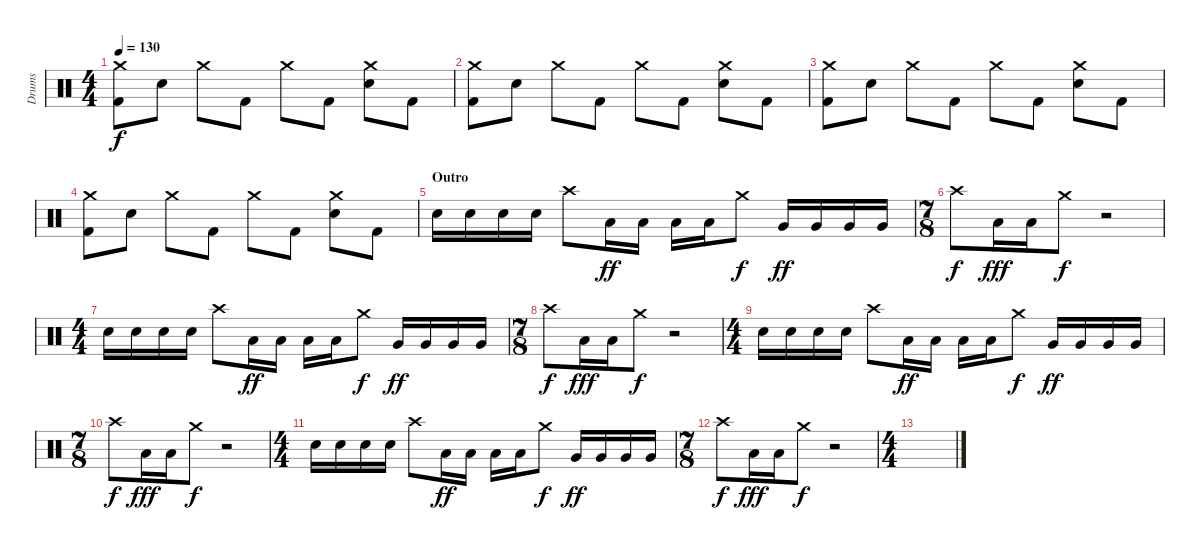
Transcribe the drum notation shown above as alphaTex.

\track ("Drums" "Drums") {instrument percussion}
\staff {score}
\articulation defaults
\ts (4 4)
\tempo 130
\clef neutral
\ks c
("Crash medium (hit)" "Kick (hit) 2").8{dy f} "Electric Snare (hit)".8 "Crash medium (hit)".8 "Kick (hit) 2".8 "Crash medium (hit)".8 "Kick (hit) 2".8 ("Crash medium (hit)" "Electric Snare (hit)").8 "Kick (hit) 2".8 |
("Crash medium (hit)" "Kick (hit) 2").8 "Electric Snare (hit)".8 "Crash medium (hit)".8 "Kick (hit) 2".8 "Crash medium (hit)".8 "Kick (hit) 2".8 ("Crash medium (hit)" "Electric Snare (hit)").8 "Kick (hit) 2".8 |
("Crash medium (hit)" "Kick (hit) 2").8 "Electric Snare (hit)".8 "Crash medium (hit)".8 "Kick (hit) 2".8 "Crash medium (hit)".8 "Kick (hit) 2".8 ("Crash medium (hit)" "Electric Snare (hit)").8 "Kick (hit) 2".8 |
("Crash medium (hit)" "Kick (hit) 2").8 "Electric Snare (hit)".8 "Crash medium (hit)".8 "Kick (hit) 2".8 "Crash medium (hit)".8 "Kick (hit) 2".8 ("Crash medium (hit)" "Electric Snare (hit)").8 "Kick (hit) 2".8 |
\section ("" "Outro")
"Electric Snare (hit)".16 "Electric Snare (hit)".16 "Electric Snare (hit)".16 "Electric Snare (hit)".16 "Crash high (hit)".8 "Low Tom (hit)".16{dy ff} "Low Tom (hit)".16 "Low Tom (hit)".16 "Low Tom (hit)".16 "Crash medium (hit)".8{dy f} "Very Low Tom (hit)".16{dy ff} "Very Low Tom (hit)".16 "Very Low Tom (hit)".16 "Very Low Tom (hit)".16 |
\ts (7 8)
"Crash high (hit)".8{dy f} "Low Floor Tom (hit)".16{dy fff} "Low Floor Tom (hit)".16 "Crash medium (hit)".8{dy f} r.2 |
\ts (4 4)
"Electric Snare (hit)".16 "Electric Snare (hit)".16 "Electric Snare (hit)".16 "Electric Snare (hit)".16 "Crash high (hit)".8 "Low Tom (hit)".16{dy ff} "Low Tom (hit)".16 "Low Tom (hit)".16 "Low Tom (hit)".16 "Crash medium (hit)".8{dy f} "Very Low Tom (hit)".16{dy ff} "Very Low Tom (hit)".16 "Very Low Tom (hit)".16 "Very Low Tom (hit)".16 |
\ts (7 8)
"Crash high (hit)".8{dy f} "Low Floor Tom (hit)".16{dy fff} "Low Floor Tom (hit)".16 "Crash medium (hit)".8{dy f} r.2 |
\ts (4 4)
"Electric Snare (hit)".16 "Electric Snare (hit)".16 "Electric Snare (hit)".16 "Electric Snare (hit)".16 "Crash high (hit)".8 "Low Tom (hit)".16{dy ff} "Low Tom (hit)".16 "Low Tom (hit)".16 "Low Tom (hit)".16 "Crash medium (hit)".8{dy f} "Very Low Tom (hit)".16{dy ff} "Very Low Tom (hit)".16 "Very Low Tom (hit)".16 "Very Low Tom (hit)".16 |
\ts (7 8)
"Crash high (hit)".8{dy f} "Low Floor Tom (hit)".16{dy fff} "Low Floor Tom (hit)".16 "Crash medium (hit)".8{dy f} r.2 |
\ts (4 4)
"Electric Snare (hit)".16 "Electric Snare (hit)".16 "Electric Snare (hit)".16 "Electric Snare (hit)".16 "Crash high (hit)".8 "Low Tom (hit)".16{dy ff} "Low Tom (hit)".16 "Low Tom (hit)".16 "Low Tom (hit)".16 "Crash medium (hit)".8{dy f} "Very Low Tom (hit)".16{dy ff} "Very Low Tom (hit)".16 "Very Low Tom (hit)".16 "Very Low Tom (hit)".16 |
\ts (7 8)
"Crash high (hit)".8{dy f} "Low Floor Tom (hit)".16{dy fff} "Low Floor Tom (hit)".16 "Crash medium (hit)".8{dy f} r.2 |
\ts (4 4)
